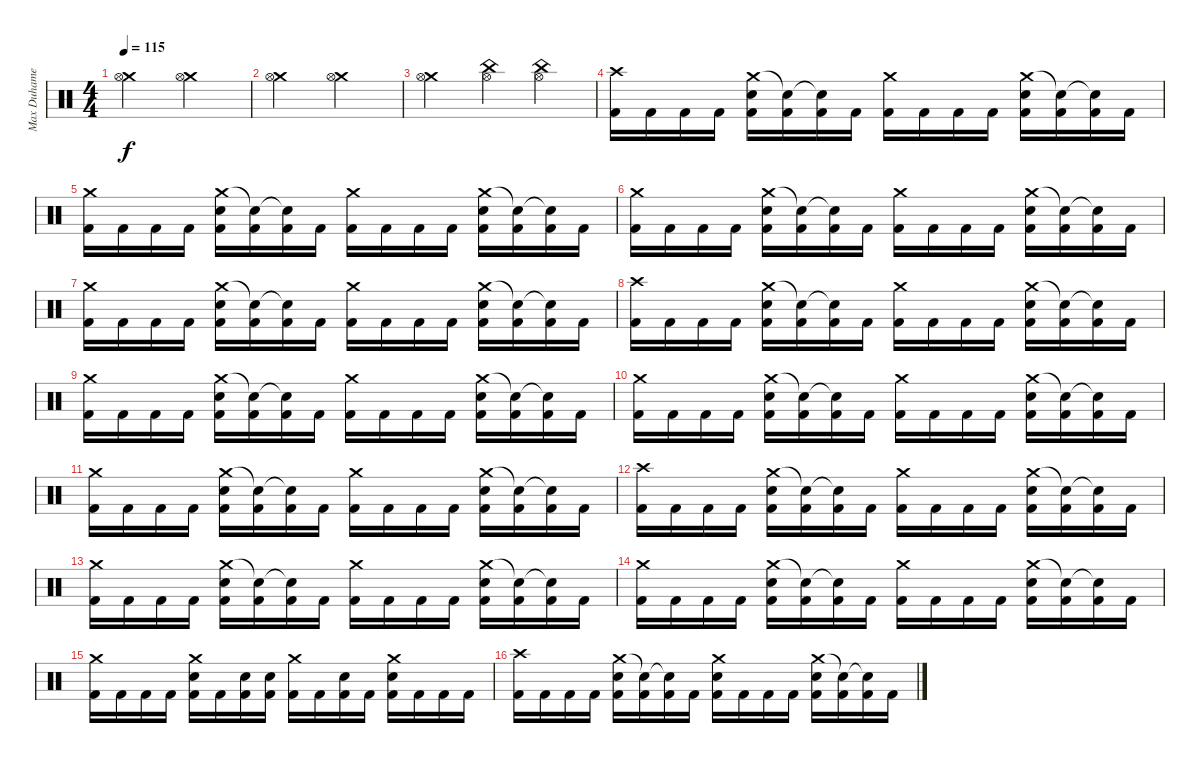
\track ("Max Duhamel (Drums)" "Max Duhame") {instrument percussion}
\staff {score}
\articulation defaults
\ts (4 4)
\tempo 115
\clef neutral
\ks c
("Crash medium (hit)" "Hi-Hat (open)").2{dy f} ("Crash medium (hit)" "Hi-Hat (open)").2 |
("Crash medium (hit)" "Hi-Hat (open)").2 ("Crash medium (hit)" "Hi-Hat (open)").2 |
("Crash medium (hit)" "Hi-Hat (open)").2 ("China (hit)" "Hi-Hat (open)").4 ("China (hit)" "Hi-Hat (open)").4 |
("Crash high (hit)" "Kick (hit) 2").16 "Kick (hit) 2".16 "Kick (hit) 2".16 "Kick (hit) 2".16 ("Crash medium (hit)" "Electric Snare (hit)" "Kick (hit) 2").16 ("Snare (hit)"{t} "Kick (hit) 2").16 ("Snare (hit)"{t} "Kick (hit) 2").16 "Kick (hit) 2".16 ("Crash medium (hit)" "Kick (hit) 2").16 "Kick (hit) 2".16 "Kick (hit) 2".16 "Kick (hit) 2".16 ("Crash medium (hit)" "Electric Snare (hit)" "Kick (hit) 2").16 ("Snare (hit)"{t} "Kick (hit) 2").16 ("Snare (hit)"{t} "Kick (hit) 2").16 "Kick (hit) 2".16 |
("Crash medium (hit)" "Kick (hit) 2").16 "Kick (hit) 2".16 "Kick (hit) 2".16 "Kick (hit) 2".16 ("Crash medium (hit)" "Electric Snare (hit)" "Kick (hit) 2").16 ("Snare (hit)"{t} "Kick (hit) 2").16 ("Snare (hit)"{t} "Kick (hit) 2").16 "Kick (hit) 2".16 ("Crash medium (hit)" "Kick (hit) 2").16 "Kick (hit) 2".16 "Kick (hit) 2".16 "Kick (hit) 2".16 ("Crash medium (hit)" "Electric Snare (hit)" "Kick (hit) 2").16 ("Snare (hit)"{t} "Kick (hit) 2").16 ("Snare (hit)"{t} "Kick (hit) 2").16 "Kick (hit) 2".16 |
("Crash medium (hit)" "Kick (hit) 2").16 "Kick (hit) 2".16 "Kick (hit) 2".16 "Kick (hit) 2".16 ("Crash medium (hit)" "Electric Snare (hit)" "Kick (hit) 2").16 ("Snare (hit)"{t} "Kick (hit) 2").16 ("Snare (hit)"{t} "Kick (hit) 2").16 "Kick (hit) 2".16 ("Crash medium (hit)" "Kick (hit) 2").16 "Kick (hit) 2".16 "Kick (hit) 2".16 "Kick (hit) 2".16 ("Crash medium (hit)" "Electric Snare (hit)" "Kick (hit) 2").16 ("Snare (hit)"{t} "Kick (hit) 2").16 ("Snare (hit)"{t} "Kick (hit) 2").16 "Kick (hit) 2".16 |
("Crash medium (hit)" "Kick (hit) 2").16 "Kick (hit) 2".16 "Kick (hit) 2".16 "Kick (hit) 2".16 ("Crash medium (hit)" "Electric Snare (hit)" "Kick (hit) 2").16 ("Snare (hit)"{t} "Kick (hit) 2").16 ("Snare (hit)"{t} "Kick (hit) 2").16 "Kick (hit) 2".16 ("Crash medium (hit)" "Kick (hit) 2").16 "Kick (hit) 2".16 "Kick (hit) 2".16 "Kick (hit) 2".16 ("Crash medium (hit)" "Electric Snare (hit)" "Kick (hit) 2").16 ("Snare (hit)"{t} "Kick (hit) 2").16 ("Snare (hit)"{t} "Kick (hit) 2").16 "Kick (hit) 2".16 |
("Crash high (hit)" "Kick (hit) 2").16 "Kick (hit) 2".16 "Kick (hit) 2".16 "Kick (hit) 2".16 ("Crash medium (hit)" "Electric Snare (hit)" "Kick (hit) 2").16 ("Snare (hit)"{t} "Kick (hit) 2").16 ("Snare (hit)"{t} "Kick (hit) 2").16 "Kick (hit) 2".16 ("Crash medium (hit)" "Kick (hit) 2").16 "Kick (hit) 2".16 "Kick (hit) 2".16 "Kick (hit) 2".16 ("Crash medium (hit)" "Electric Snare (hit)" "Kick (hit) 2").16 ("Snare (hit)"{t} "Kick (hit) 2").16 ("Snare (hit)"{t} "Kick (hit) 2").16 "Kick (hit) 2".16 |
("Crash medium (hit)" "Kick (hit) 2").16 "Kick (hit) 2".16 "Kick (hit) 2".16 "Kick (hit) 2".16 ("Crash medium (hit)" "Electric Snare (hit)" "Kick (hit) 2").16 ("Snare (hit)"{t} "Kick (hit) 2").16 ("Snare (hit)"{t} "Kick (hit) 2").16 "Kick (hit) 2".16 ("Crash medium (hit)" "Kick (hit) 2").16 "Kick (hit) 2".16 "Kick (hit) 2".16 "Kick (hit) 2".16 ("Crash medium (hit)" "Electric Snare (hit)" "Kick (hit) 2").16 ("Snare (hit)"{t} "Kick (hit) 2").16 ("Snare (hit)"{t} "Kick (hit) 2").16 "Kick (hit) 2".16 |
("Crash medium (hit)" "Kick (hit) 2").16 "Kick (hit) 2".16 "Kick (hit) 2".16 "Kick (hit) 2".16 ("Crash medium (hit)" "Electric Snare (hit)" "Kick (hit) 2").16 ("Snare (hit)"{t} "Kick (hit) 2").16 ("Snare (hit)"{t} "Kick (hit) 2").16 "Kick (hit) 2".16 ("Crash medium (hit)" "Kick (hit) 2").16 "Kick (hit) 2".16 "Kick (hit) 2".16 "Kick (hit) 2".16 ("Crash medium (hit)" "Electric Snare (hit)" "Kick (hit) 2").16 ("Snare (hit)"{t} "Kick (hit) 2").16 ("Snare (hit)"{t} "Kick (hit) 2").16 "Kick (hit) 2".16 |
("Crash medium (hit)" "Kick (hit) 2").16 "Kick (hit) 2".16 "Kick (hit) 2".16 "Kick (hit) 2".16 ("Crash medium (hit)" "Electric Snare (hit)" "Kick (hit) 2").16 ("Snare (hit)"{t} "Kick (hit) 2").16 ("Snare (hit)"{t} "Kick (hit) 2").16 "Kick (hit) 2".16 ("Crash medium (hit)" "Kick (hit) 2").16 "Kick (hit) 2".16 "Kick (hit) 2".16 "Kick (hit) 2".16 ("Crash medium (hit)" "Electric Snare (hit)" "Kick (hit) 2").16 ("Snare (hit)"{t} "Kick (hit) 2").16 ("Snare (hit)"{t} "Kick (hit) 2").16 "Kick (hit) 2".16 |
("Crash high (hit)" "Kick (hit) 2").16 "Kick (hit) 2".16 "Kick (hit) 2".16 "Kick (hit) 2".16 ("Crash medium (hit)" "Electric Snare (hit)" "Kick (hit) 2").16 ("Snare (hit)"{t} "Kick (hit) 2").16 ("Snare (hit)"{t} "Kick (hit) 2").16 "Kick (hit) 2".16 ("Crash medium (hit)" "Kick (hit) 2").16 "Kick (hit) 2".16 "Kick (hit) 2".16 "Kick (hit) 2".16 ("Crash medium (hit)" "Electric Snare (hit)" "Kick (hit) 2").16 ("Snare (hit)"{t} "Kick (hit) 2").16 ("Snare (hit)"{t} "Kick (hit) 2").16 "Kick (hit) 2".16 |
("Crash medium (hit)" "Kick (hit) 2").16 "Kick (hit) 2".16 "Kick (hit) 2".16 "Kick (hit) 2".16 ("Crash medium (hit)" "Electric Snare (hit)" "Kick (hit) 2").16 ("Snare (hit)"{t} "Kick (hit) 2").16 ("Snare (hit)"{t} "Kick (hit) 2").16 "Kick (hit) 2".16 ("Crash medium (hit)" "Kick (hit) 2").16 "Kick (hit) 2".16 "Kick (hit) 2".16 "Kick (hit) 2".16 ("Crash medium (hit)" "Electric Snare (hit)" "Kick (hit) 2").16 ("Snare (hit)"{t} "Kick (hit) 2").16 ("Snare (hit)"{t} "Kick (hit) 2").16 "Kick (hit) 2".16 |
("Crash medium (hit)" "Kick (hit) 2").16 "Kick (hit) 2".16 "Kick (hit) 2".16 "Kick (hit) 2".16 ("Crash medium (hit)" "Electric Snare (hit)" "Kick (hit) 2").16 ("Snare (hit)"{t} "Kick (hit) 2").16 ("Snare (hit)"{t} "Kick (hit) 2").16 "Kick (hit) 2".16 ("Crash medium (hit)" "Kick (hit) 2").16 "Kick (hit) 2".16 "Kick (hit) 2".16 "Kick (hit) 2".16 ("Crash medium (hit)" "Electric Snare (hit)" "Kick (hit) 2").16 ("Snare (hit)"{t} "Kick (hit) 2").16 ("Snare (hit)"{t} "Kick (hit) 2").16 "Kick (hit) 2".16 |
("Crash medium (hit)" "Kick (hit) 2").16 "Kick (hit) 2".16 "Kick (hit) 2".16 "Kick (hit) 2".16 ("Crash medium (hit)" "Electric Snare (hit)" "Kick (hit) 2").16 "Kick (hit) 2".16 ("Electric Snare (hit)" "Kick (hit) 2").16 ("Electric Snare (hit)" "Kick (hit) 2").16 ("Crash medium (hit)" "Kick (hit) 2").16 "Kick (hit) 2".16 ("Electric Snare (hit)" "Kick (hit) 2").16 "Kick (hit) 2".16 ("Crash medium (hit)" "Electric Snare (hit)" "Kick (hit) 2").16 "Kick (hit) 2".16 "Kick (hit) 2".16 "Kick (hit) 2".16 |
("Crash high (hit)" "Kick (hit) 2").16 "Kick (hit) 2".16 "Kick (hit) 2".16 "Kick (hit) 2".16 ("Crash medium (hit)" "Electric Snare (hit)" "Kick (hit) 2").16 ("Snare (hit)"{t} "Kick (hit) 2").16 ("Snare (hit)"{t} "Kick (hit) 2").16 "Kick (hit) 2".16 ("Crash medium (hit)" "Electric Snare (hit)" "Kick (hit) 2").16 "Kick (hit) 2".16 "Kick (hit) 2".16 "Kick (hit) 2".16 ("Crash medium (hit)" "Electric Snare (hit)" "Kick (hit) 2").16 ("Snare (hit)"{t} "Kick (hit) 2").16 ("Snare (hit)"{t} "Kick (hit) 2").16 "Kick (hit) 2".16
